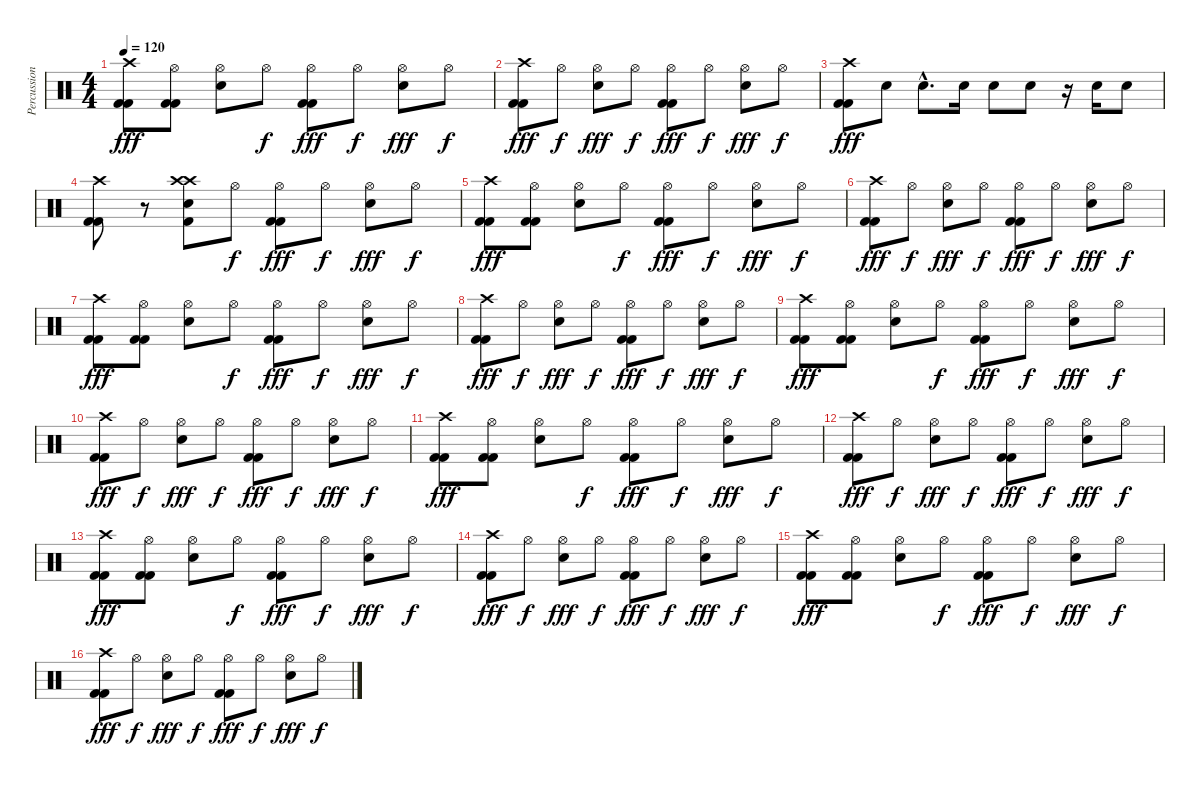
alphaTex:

\track ("Percussion" "Percussion") {instrument percussion}
\staff {score}
\articulation defaults
\ts (4 4)
\tempo 120
\clef neutral
\ks c
("Crash high (hit)" "Kick (hit) 2" "Kick (hit) 2").8{dy fff} ("Hi-Hat (open)" "Kick (hit) 2" "Kick (hit) 2").8 ("Hi-Hat (open)" "Snare (hit) 2").8 "Hi-Hat (open)".8{dy f} ("Hi-Hat (open)" "Kick (hit) 2" "Kick (hit) 2").8{dy fff} "Hi-Hat (open)".8{dy f} ("Hi-Hat (open)" "Snare (hit) 2").8{dy fff} "Hi-Hat (open)".8{dy f} |
("Crash high (hit)" "Kick (hit) 2" "Kick (hit) 2").8{dy fff} "Hi-Hat (open)".8{dy f} ("Hi-Hat (open)" "Snare (hit) 2").8{dy fff} "Hi-Hat (open)".8{dy f} ("Hi-Hat (open)" "Kick (hit) 2" "Kick (hit) 2").8{dy fff} "Hi-Hat (open)".8{dy f} ("Hi-Hat (open)" "Snare (hit) 2").8{dy fff} "Hi-Hat (open)".8{dy f} |
("Crash high (hit)" "Kick (hit) 2" "Kick (hit) 2").8{dy fff} "Snare (hit) 2".8 "Snare (hit) 2"{hac}.8{d} "Snare (hit) 2".16 "Snare (hit) 2".8 "Snare (hit) 2".8 r.16 "Snare (hit) 2".16 "Snare (hit) 2".8 |
("Crash high (hit)" "Kick (hit) 2" "Kick (hit) 2").8 r.8 ("Crash high (hit)" "Crash high (hit)" "Snare (hit) 2" "Kick (hit) 2").8 "Hi-Hat (open)".8{dy f} ("Hi-Hat (open)" "Kick (hit) 2" "Kick (hit) 2").8{dy fff} "Hi-Hat (open)".8{dy f} ("Hi-Hat (open)" "Snare (hit) 2").8{dy fff} "Hi-Hat (open)".8{dy f} |
("Crash high (hit)" "Kick (hit) 2" "Kick (hit) 2").8{dy fff} ("Hi-Hat (open)" "Kick (hit) 2" "Kick (hit) 2").8 ("Hi-Hat (open)" "Snare (hit) 2").8 "Hi-Hat (open)".8{dy f} ("Hi-Hat (open)" "Kick (hit) 2" "Kick (hit) 2").8{dy fff} "Hi-Hat (open)".8{dy f} ("Hi-Hat (open)" "Snare (hit) 2").8{dy fff} "Hi-Hat (open)".8{dy f} |
("Crash high (hit)" "Kick (hit) 2" "Kick (hit) 2").8{dy fff} "Hi-Hat (open)".8{dy f} ("Hi-Hat (open)" "Snare (hit) 2").8{dy fff} "Hi-Hat (open)".8{dy f} ("Hi-Hat (open)" "Kick (hit) 2" "Kick (hit) 2").8{dy fff} "Hi-Hat (open)".8{dy f} ("Hi-Hat (open)" "Snare (hit) 2").8{dy fff} "Hi-Hat (open)".8{dy f} |
("Crash high (hit)" "Kick (hit) 2" "Kick (hit) 2").8{dy fff} ("Hi-Hat (open)" "Kick (hit) 2" "Kick (hit) 2").8 ("Hi-Hat (open)" "Snare (hit) 2").8 "Hi-Hat (open)".8{dy f} ("Hi-Hat (open)" "Kick (hit) 2" "Kick (hit) 2").8{dy fff} "Hi-Hat (open)".8{dy f} ("Hi-Hat (open)" "Snare (hit) 2").8{dy fff} "Hi-Hat (open)".8{dy f} |
("Crash high (hit)" "Kick (hit) 2" "Kick (hit) 2").8{dy fff} "Hi-Hat (open)".8{dy f} ("Hi-Hat (open)" "Snare (hit) 2").8{dy fff} "Hi-Hat (open)".8{dy f} ("Hi-Hat (open)" "Kick (hit) 2" "Kick (hit) 2").8{dy fff} "Hi-Hat (open)".8{dy f} ("Hi-Hat (open)" "Snare (hit) 2").8{dy fff} "Hi-Hat (open)".8{dy f} |
("Crash high (hit)" "Kick (hit) 2" "Kick (hit) 2").8{dy fff} ("Hi-Hat (open)" "Kick (hit) 2" "Kick (hit) 2").8 ("Hi-Hat (open)" "Snare (hit) 2").8 "Hi-Hat (open)".8{dy f} ("Hi-Hat (open)" "Kick (hit) 2" "Kick (hit) 2").8{dy fff} "Hi-Hat (open)".8{dy f} ("Hi-Hat (open)" "Snare (hit) 2").8{dy fff} "Hi-Hat (open)".8{dy f} |
("Crash high (hit)" "Kick (hit) 2" "Kick (hit) 2").8{dy fff} "Hi-Hat (open)".8{dy f} ("Hi-Hat (open)" "Snare (hit) 2").8{dy fff} "Hi-Hat (open)".8{dy f} ("Hi-Hat (open)" "Kick (hit) 2" "Kick (hit) 2").8{dy fff} "Hi-Hat (open)".8{dy f} ("Hi-Hat (open)" "Snare (hit) 2").8{dy fff} "Hi-Hat (open)".8{dy f} |
("Crash high (hit)" "Kick (hit) 2" "Kick (hit) 2").8{dy fff} ("Hi-Hat (open)" "Kick (hit) 2" "Kick (hit) 2").8 ("Hi-Hat (open)" "Snare (hit) 2").8 "Hi-Hat (open)".8{dy f} ("Hi-Hat (open)" "Kick (hit) 2" "Kick (hit) 2").8{dy fff} "Hi-Hat (open)".8{dy f} ("Hi-Hat (open)" "Snare (hit) 2").8{dy fff} "Hi-Hat (open)".8{dy f} |
("Crash high (hit)" "Kick (hit) 2" "Kick (hit) 2").8{dy fff} "Hi-Hat (open)".8{dy f} ("Hi-Hat (open)" "Snare (hit) 2").8{dy fff} "Hi-Hat (open)".8{dy f} ("Hi-Hat (open)" "Kick (hit) 2" "Kick (hit) 2").8{dy fff} "Hi-Hat (open)".8{dy f} ("Hi-Hat (open)" "Snare (hit) 2").8{dy fff} "Hi-Hat (open)".8{dy f} |
("Crash high (hit)" "Kick (hit) 2" "Kick (hit) 2").8{dy fff} ("Hi-Hat (open)" "Kick (hit) 2" "Kick (hit) 2").8 ("Hi-Hat (open)" "Snare (hit) 2").8 "Hi-Hat (open)".8{dy f} ("Hi-Hat (open)" "Kick (hit) 2" "Kick (hit) 2").8{dy fff} "Hi-Hat (open)".8{dy f} ("Hi-Hat (open)" "Snare (hit) 2").8{dy fff} "Hi-Hat (open)".8{dy f} |
("Crash high (hit)" "Kick (hit) 2" "Kick (hit) 2").8{dy fff} "Hi-Hat (open)".8{dy f} ("Hi-Hat (open)" "Snare (hit) 2").8{dy fff} "Hi-Hat (open)".8{dy f} ("Hi-Hat (open)" "Kick (hit) 2" "Kick (hit) 2").8{dy fff} "Hi-Hat (open)".8{dy f} ("Hi-Hat (open)" "Snare (hit) 2").8{dy fff} "Hi-Hat (open)".8{dy f} |
("Crash high (hit)" "Kick (hit) 2" "Kick (hit) 2").8{dy fff} ("Hi-Hat (open)" "Kick (hit) 2" "Kick (hit) 2").8 ("Hi-Hat (open)" "Snare (hit) 2").8 "Hi-Hat (open)".8{dy f} ("Hi-Hat (open)" "Kick (hit) 2" "Kick (hit) 2").8{dy fff} "Hi-Hat (open)".8{dy f} ("Hi-Hat (open)" "Snare (hit) 2").8{dy fff} "Hi-Hat (open)".8{dy f} |
("Crash high (hit)" "Kick (hit) 2" "Kick (hit) 2").8{dy fff} "Hi-Hat (open)".8{dy f} ("Hi-Hat (open)" "Snare (hit) 2").8{dy fff} "Hi-Hat (open)".8{dy f} ("Hi-Hat (open)" "Kick (hit) 2" "Kick (hit) 2").8{dy fff} "Hi-Hat (open)".8{dy f} ("Hi-Hat (open)" "Snare (hit) 2").8{dy fff} "Hi-Hat (open)".8{dy f}
